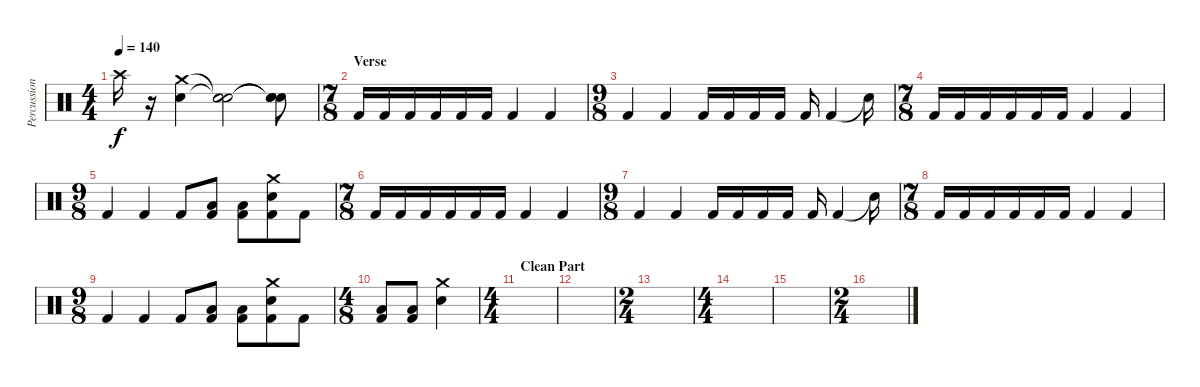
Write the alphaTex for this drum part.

\track ("Percussion" "Percussion") {instrument percussion}
\staff {score}
\articulation defaults
\ts (4 4)
\tempo 140
\clef neutral
\ks c "Crash high (hit)"{x}.16{dy f}
r.16 ("Crash medium (hit)" "Electric Snare (hit)").4 ("Snare (hit)"{t} "Snare (hit)"{t} "Snare (hit)"{t}).2 ("Snare (hit)"{t} "Snare (hit)"{t} "Snare (hit)"{t}).8 |
\ts (7 8)
\section ("" "Verse")
"Kick (hit) 2".16 "Kick (hit) 2".16 "Kick (hit) 2".16 "Kick (hit) 2".16 "Kick (hit) 2".16 "Kick (hit) 2".16 "Kick (hit) 2".4 "Kick (hit) 2".4 |
\ts (9 8)
"Kick (hit) 2".4 "Kick (hit) 2".4 "Kick (hit) 2".16 "Kick (hit) 2".16 "Kick (hit) 2".16 "Kick (hit) 2".16 "Kick (hit) 2".16 "Kick (hit) 2".4 "Snare (hit)"{t}.16 |
\ts (7 8)
"Kick (hit) 2".16 "Kick (hit) 2".16 "Kick (hit) 2".16 "Kick (hit) 2".16 "Kick (hit) 2".16 "Kick (hit) 2".16 "Kick (hit) 2".4 "Kick (hit) 2".4 |
\ts (9 8)
"Kick (hit) 2".4 "Kick (hit) 2".4 "Kick (hit) 2".8 ("Low Tom (hit)" "Kick (hit) 2").8 ("Low Tom (hit)" "Kick (hit) 2").8 ("Crash medium (hit)" "Electric Snare (hit)" "Kick (hit) 2").8 "Kick (hit) 2".8 |
\ts (7 8)
"Kick (hit) 2".16 "Kick (hit) 2".16 "Kick (hit) 2".16 "Kick (hit) 2".16 "Kick (hit) 2".16 "Kick (hit) 2".16 "Kick (hit) 2".4 "Kick (hit) 2".4 |
\ts (9 8)
"Kick (hit) 2".4 "Kick (hit) 2".4 "Kick (hit) 2".16 "Kick (hit) 2".16 "Kick (hit) 2".16 "Kick (hit) 2".16 "Kick (hit) 2".16 "Kick (hit) 2".4 "Snare (hit)"{t}.16 |
\ts (7 8)
"Kick (hit) 2".16 "Kick (hit) 2".16 "Kick (hit) 2".16 "Kick (hit) 2".16 "Kick (hit) 2".16 "Kick (hit) 2".16 "Kick (hit) 2".4 "Kick (hit) 2".4 |
\ts (9 8)
"Kick (hit) 2".4 "Kick (hit) 2".4 "Kick (hit) 2".8 ("Low Tom (hit)" "Kick (hit) 2").8 ("Low Tom (hit)" "Kick (hit) 2").8 ("Crash medium (hit)" "Electric Snare (hit)" "Kick (hit) 2").8 "Kick (hit) 2".8 |
\ts (4 8)
("Low Tom (hit)" "Kick (hit) 2").8 ("Low Tom (hit)" "Kick (hit) 2").8 ("Crash medium (hit)" "Electric Snare (hit)").4 |
\ts (4 4)
\section ("" "Clean Part")
|
|
\ts (2 4)
|
\ts (4 4)
|
|
\ts (2 4)
